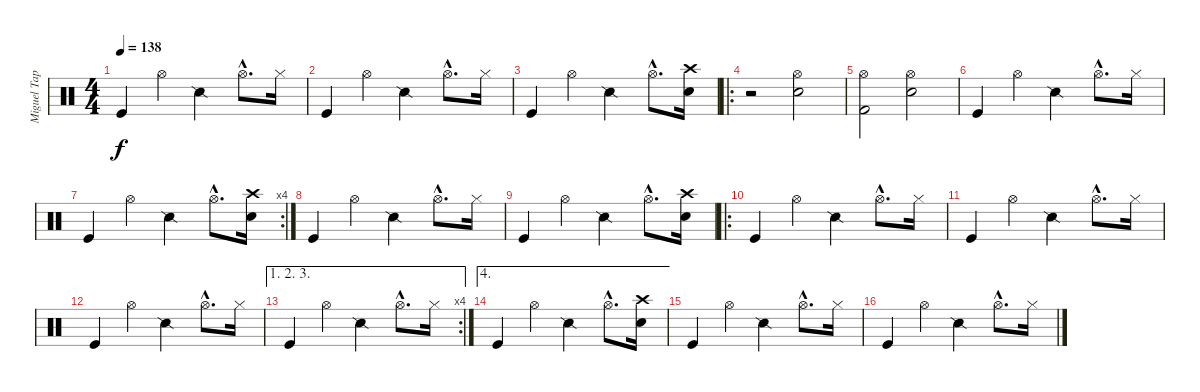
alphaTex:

\track ("Miguel Tapia (batería)" "Miguel Tap") {instrument percussion}
\staff {score}
\articulation defaults
\ts (4 4)
\tempo 138
\clef neutral
\ks c "Kick (hit)".4{dy f} "Hi-Hat (open)".4 "Snare (side stick) 2".4 "Hi-Hat (open)"{hac}.8{d} "Hi-Hat (closed)".16
|
"Kick (hit)".4 "Hi-Hat (open)".4 "Snare (side stick) 2".4 "Hi-Hat (open)"{hac}.8{d} "Hi-Hat (closed)".16 |
"Kick (hit)".4 "Hi-Hat (open)".4 "Snare (side stick) 2".4 "Hi-Hat (open)"{hac}.8{d} ("Crash high (hit)" "Snare (hit) 2").16 |
\ro
r.2 ("Hi-Hat (open)" "Snare (hit) 2").2 |
("Hi-Hat (open)" "Kick (hit) 2").2 ("Hi-Hat (open)" "Electric Snare (hit)").2 |
"Kick (hit)".4 "Hi-Hat (open)".4 "Snare (side stick) 2".4 "Hi-Hat (open)"{hac}.8{d} "Hi-Hat (closed)".16 |
\rc 4 "Kick (hit)".4 "Hi-Hat (open)".4 "Snare (side stick) 2".4 "Hi-Hat (open)"{hac}.8{d}
("Crash high (hit)" "Snare (hit) 2").16 |
"Kick (hit)".4 "Hi-Hat (open)".4 "Snare (side stick) 2".4 "Hi-Hat (open)"{hac}.8{d} "Hi-Hat (closed)".16 |
"Kick (hit)".4 "Hi-Hat (open)".4 "Snare (side stick) 2".4 "Hi-Hat (open)"{hac}.8{d} ("Crash high (hit)" "Snare (hit) 2").16 |
\ro "Kick (hit)".4 "Hi-Hat (open)".4 "Snare (side stick) 2".4 "Hi-Hat (open)"{hac}.8{d} "Hi-Hat (closed)".16
|
"Kick (hit)".4 "Hi-Hat (open)".4 "Snare (side stick) 2".4 "Hi-Hat (open)"{hac}.8{d} "Hi-Hat (closed)".16 |
"Kick (hit)".4 "Hi-Hat (open)".4 "Snare (side stick) 2".4 "Hi-Hat (open)"{hac}.8{d} "Hi-Hat (closed)".16 |
\ae (1 2 3)
\rc 4 "Kick (hit)".4 "Hi-Hat (open)".4 "Snare (side stick) 2".4 "Hi-Hat (open)"{hac}.8{d} "Hi-Hat (closed)".16
|
\ae 4 "Kick (hit)".4 "Hi-Hat (open)".4 "Snare (side stick) 2".4 "Hi-Hat (open)"{hac}.8{d}
("Crash high (hit)" "Snare (hit) 2").16 |
"Kick (hit)".4 "Hi-Hat (open)".4 "Snare (side stick) 2".4 "Hi-Hat (open)"{hac}.8{d} "Hi-Hat (closed)".16 |
"Kick (hit)".4 "Hi-Hat (open)".4 "Snare (side stick) 2".4 "Hi-Hat (open)"{hac}.8{d} "Hi-Hat (closed)".16
